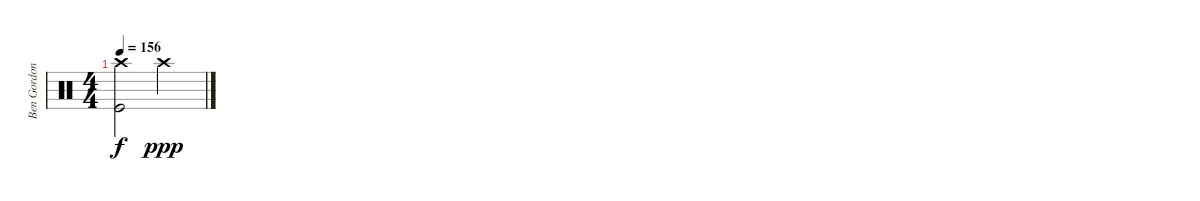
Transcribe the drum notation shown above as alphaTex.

\track ("Ben Gordon" "Ben Gordon") {instrument percussion}
\staff {score}
\articulation defaults
\ts (4 4)
\tempo 156
\clef neutral
\ks c
("Crash high (hit)" "Kick (hit)").2{dy f} "Crash high (hit)".2{dy ppp}
